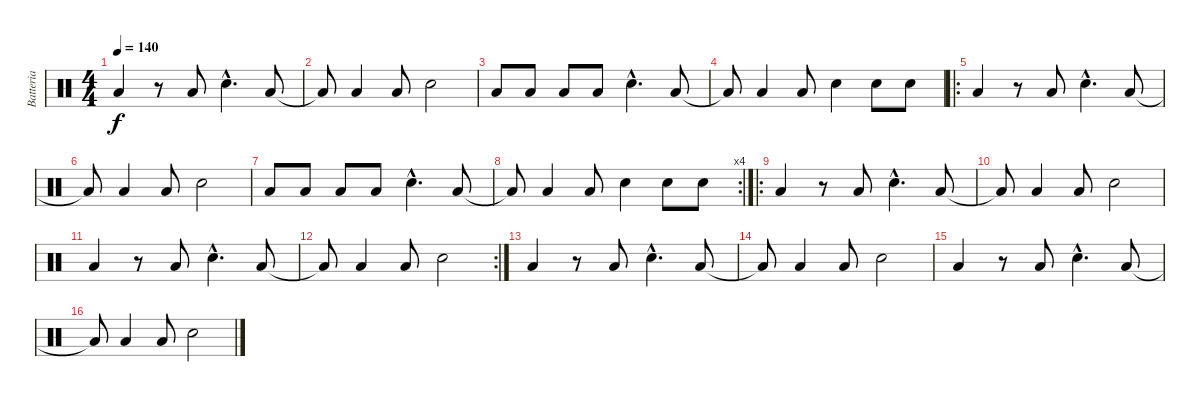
\track ("Batteria" "Batteria") {instrument percussion}
\staff {score}
\articulation defaults
\ts (4 4)
\tempo 140
\clef neutral
\ks c "Low Floor Tom (hit)".4{dy f}
r.8 "Low Floor Tom (hit)".8 "Snare (hit) 2"{hac}.4{d} "Low Floor Tom (hit)".8 |
"Low Floor Tom (hit)"{t}.8 "Low Floor Tom (hit)".4 "Low Floor Tom (hit)".8 "Snare (hit) 2".2 |
"Low Floor Tom (hit)".8 "Low Floor Tom (hit)".8 "Low Floor Tom (hit)".8 "Low Floor Tom (hit)".8 "Snare (hit) 2"{hac}.4{d} "Low Floor Tom (hit)".8 |
"Low Floor Tom (hit)"{t}.8 "Low Floor Tom (hit)".4 "Low Floor Tom (hit)".8 "Snare (hit) 2".4 "Snare (hit) 2".8 "Snare (hit) 2".8 |
\ro "Low Floor Tom (hit)".4
r.8 "Low Floor Tom (hit)".8 "Snare (hit) 2"{hac}.4{d} "Low Floor Tom (hit)".8 |
"Low Floor Tom (hit)"{t}.8 "Low Floor Tom (hit)".4 "Low Floor Tom (hit)".8 "Snare (hit) 2".2 |
"Low Floor Tom (hit)".8 "Low Floor Tom (hit)".8 "Low Floor Tom (hit)".8 "Low Floor Tom (hit)".8 "Snare (hit) 2"{hac}.4{d} "Low Floor Tom (hit)".8 |
\rc 4 "Low Floor Tom (hit)"{t}.8 "Low Floor Tom (hit)".4 "Low Floor Tom (hit)".8 "Snare (hit) 2".4 "Snare (hit) 2".8 "Snare (hit) 2".8
|
\ro "Low Floor Tom (hit)".4
r.8 "Low Floor Tom (hit)".8 "Snare (hit) 2"{hac}.4{d} "Low Floor Tom (hit)".8 |
"Low Floor Tom (hit)"{t}.8 "Low Floor Tom (hit)".4 "Low Floor Tom (hit)".8 "Snare (hit) 2".2 |
"Low Floor Tom (hit)".4 r.8 "Low Floor Tom (hit)".8 "Snare (hit) 2"{hac}.4{d} "Low Floor Tom (hit)".8 |
\rc 2 "Low Floor Tom (hit)"{t}.8 "Low Floor Tom (hit)".4 "Low Floor Tom (hit)".8 "Snare (hit) 2".2
|
"Low Floor Tom (hit)".4 r.8 "Low Floor Tom (hit)".8 "Snare (hit) 2"{hac}.4{d} "Low Floor Tom (hit)".8 |
"Low Floor Tom (hit)"{t}.8 "Low Floor Tom (hit)".4 "Low Floor Tom (hit)".8 "Snare (hit) 2".2 |
"Low Floor Tom (hit)".4 r.8 "Low Floor Tom (hit)".8 "Snare (hit) 2"{hac}.4{d} "Low Floor Tom (hit)".8 |
"Low Floor Tom (hit)"{t}.8 "Low Floor Tom (hit)".4 "Low Floor Tom (hit)".8 "Snare (hit) 2".2
